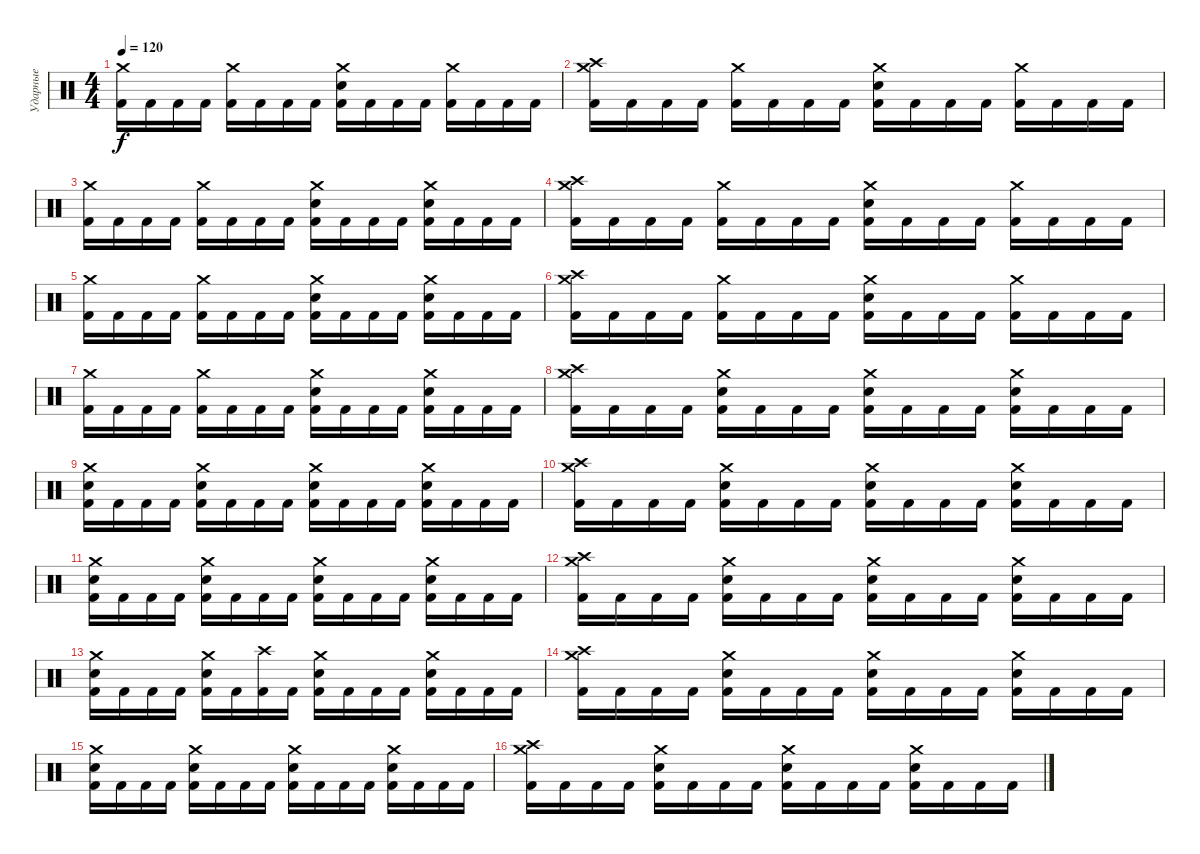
\track ("Ударные" "Ударные") {instrument percussion}
\staff {score}
\articulation defaults
\ts (4 4)
\tempo 120
\clef neutral
\ks c
("Crash medium (hit)" "Kick (hit) 2").16{dy f} "Kick (hit) 2".16 "Kick (hit) 2".16 "Kick (hit) 2".16 ("Crash medium (hit)" "Kick (hit) 2").16 "Kick (hit) 2".16 "Kick (hit) 2".16 "Kick (hit) 2".16 ("Crash medium (hit)" "Electric Snare (hit)" "Kick (hit) 2").16 "Kick (hit) 2".16 "Kick (hit) 2".16 "Kick (hit) 2".16 ("Crash medium (hit)" "Kick (hit) 2").16 "Kick (hit) 2".16 "Kick (hit) 2".16 "Kick (hit) 2".16 |
("Crash medium (hit)" "Crash high (hit)" "Kick (hit) 2").16 "Kick (hit) 2".16 "Kick (hit) 2".16 "Kick (hit) 2".16 ("Crash medium (hit)" "Kick (hit) 2").16 "Kick (hit) 2".16 "Kick (hit) 2".16 "Kick (hit) 2".16 ("Crash medium (hit)" "Electric Snare (hit)" "Kick (hit) 2").16 "Kick (hit) 2".16 "Kick (hit) 2".16 "Kick (hit) 2".16 ("Crash medium (hit)" "Kick (hit) 2").16 "Kick (hit) 2".16 "Kick (hit) 2".16 "Kick (hit) 2".16 |
("Crash medium (hit)" "Kick (hit) 2").16 "Kick (hit) 2".16 "Kick (hit) 2".16 "Kick (hit) 2".16 ("Crash medium (hit)" "Kick (hit) 2").16 "Kick (hit) 2".16 "Kick (hit) 2".16 "Kick (hit) 2".16 ("Crash medium (hit)" "Electric Snare (hit)" "Kick (hit) 2").16 "Kick (hit) 2".16 "Kick (hit) 2".16 "Kick (hit) 2".16 ("Crash medium (hit)" "Electric Snare (hit)" "Kick (hit) 2").16 "Kick (hit) 2".16 "Kick (hit) 2".16 "Kick (hit) 2".16 |
("Crash medium (hit)" "Crash high (hit)" "Kick (hit) 2").16 "Kick (hit) 2".16 "Kick (hit) 2".16 "Kick (hit) 2".16 ("Crash medium (hit)" "Kick (hit) 2").16 "Kick (hit) 2".16 "Kick (hit) 2".16 "Kick (hit) 2".16 ("Crash medium (hit)" "Electric Snare (hit)" "Kick (hit) 2").16 "Kick (hit) 2".16 "Kick (hit) 2".16 "Kick (hit) 2".16 ("Crash medium (hit)" "Kick (hit) 2").16 "Kick (hit) 2".16 "Kick (hit) 2".16 "Kick (hit) 2".16 |
("Crash medium (hit)" "Kick (hit) 2").16 "Kick (hit) 2".16 "Kick (hit) 2".16 "Kick (hit) 2".16 ("Crash medium (hit)" "Kick (hit) 2").16 "Kick (hit) 2".16 "Kick (hit) 2".16 "Kick (hit) 2".16 ("Crash medium (hit)" "Electric Snare (hit)" "Kick (hit) 2").16 "Kick (hit) 2".16 "Kick (hit) 2".16 "Kick (hit) 2".16 ("Crash medium (hit)" "Electric Snare (hit)" "Kick (hit) 2").16 "Kick (hit) 2".16 "Kick (hit) 2".16 "Kick (hit) 2".16 |
("Crash medium (hit)" "Crash high (hit)" "Kick (hit) 2").16 "Kick (hit) 2".16 "Kick (hit) 2".16 "Kick (hit) 2".16 ("Crash medium (hit)" "Kick (hit) 2").16 "Kick (hit) 2".16 "Kick (hit) 2".16 "Kick (hit) 2".16 ("Crash medium (hit)" "Electric Snare (hit)" "Kick (hit) 2").16 "Kick (hit) 2".16 "Kick (hit) 2".16 "Kick (hit) 2".16 ("Crash medium (hit)" "Kick (hit) 2").16 "Kick (hit) 2".16 "Kick (hit) 2".16 "Kick (hit) 2".16 |
("Crash medium (hit)" "Kick (hit) 2").16 "Kick (hit) 2".16 "Kick (hit) 2".16 "Kick (hit) 2".16 ("Crash medium (hit)" "Kick (hit) 2").16 "Kick (hit) 2".16 "Kick (hit) 2".16 "Kick (hit) 2".16 ("Crash medium (hit)" "Electric Snare (hit)" "Kick (hit) 2").16 "Kick (hit) 2".16 "Kick (hit) 2".16 "Kick (hit) 2".16 ("Crash medium (hit)" "Electric Snare (hit)" "Kick (hit) 2").16 "Kick (hit) 2".16 "Kick (hit) 2".16 "Kick (hit) 2".16 |
("Crash medium (hit)" "Crash high (hit)" "Kick (hit) 2").16 "Kick (hit) 2".16 "Kick (hit) 2".16 "Kick (hit) 2".16 ("Crash medium (hit)" "Electric Snare (hit)" "Kick (hit) 2").16 "Kick (hit) 2".16 "Kick (hit) 2".16 "Kick (hit) 2".16 ("Crash medium (hit)" "Electric Snare (hit)" "Kick (hit) 2").16 "Kick (hit) 2".16 "Kick (hit) 2".16 "Kick (hit) 2".16 ("Crash medium (hit)" "Electric Snare (hit)" "Kick (hit) 2").16 "Kick (hit) 2".16 "Kick (hit) 2".16 "Kick (hit) 2".16 |
("Crash medium (hit)" "Electric Snare (hit)" "Kick (hit) 2").16 "Kick (hit) 2".16 "Kick (hit) 2".16 "Kick (hit) 2".16 ("Crash medium (hit)" "Electric Snare (hit)" "Kick (hit) 2").16 "Kick (hit) 2".16 "Kick (hit) 2".16 "Kick (hit) 2".16 ("Crash medium (hit)" "Electric Snare (hit)" "Kick (hit) 2").16 "Kick (hit) 2".16 "Kick (hit) 2".16 "Kick (hit) 2".16 ("Crash medium (hit)" "Electric Snare (hit)" "Kick (hit) 2").16 "Kick (hit) 2".16 "Kick (hit) 2".16 "Kick (hit) 2".16 |
("Crash medium (hit)" "Crash high (hit)" "Kick (hit) 2").16 "Kick (hit) 2".16 "Kick (hit) 2".16 "Kick (hit) 2".16 ("Crash medium (hit)" "Electric Snare (hit)" "Kick (hit) 2").16 "Kick (hit) 2".16 "Kick (hit) 2".16 "Kick (hit) 2".16 ("Crash medium (hit)" "Electric Snare (hit)" "Kick (hit) 2").16 "Kick (hit) 2".16 "Kick (hit) 2".16 "Kick (hit) 2".16 ("Crash medium (hit)" "Electric Snare (hit)" "Kick (hit) 2").16 "Kick (hit) 2".16 "Kick (hit) 2".16 "Kick (hit) 2".16 |
("Crash medium (hit)" "Electric Snare (hit)" "Kick (hit) 2").16 "Kick (hit) 2".16 "Kick (hit) 2".16 "Kick (hit) 2".16 ("Crash medium (hit)" "Electric Snare (hit)" "Kick (hit) 2").16 "Kick (hit) 2".16 "Kick (hit) 2".16 "Kick (hit) 2".16 ("Crash medium (hit)" "Electric Snare (hit)" "Kick (hit) 2").16 "Kick (hit) 2".16 "Kick (hit) 2".16 "Kick (hit) 2".16 ("Crash medium (hit)" "Electric Snare (hit)" "Kick (hit) 2").16 "Kick (hit) 2".16 "Kick (hit) 2".16 "Kick (hit) 2".16 |
("Crash medium (hit)" "Crash high (hit)" "Kick (hit) 2").16 "Kick (hit) 2".16 "Kick (hit) 2".16 "Kick (hit) 2".16 ("Crash medium (hit)" "Electric Snare (hit)" "Kick (hit) 2").16 "Kick (hit) 2".16 "Kick (hit) 2".16 "Kick (hit) 2".16 ("Crash medium (hit)" "Electric Snare (hit)" "Kick (hit) 2").16 "Kick (hit) 2".16 "Kick (hit) 2".16 "Kick (hit) 2".16 ("Crash medium (hit)" "Electric Snare (hit)" "Kick (hit) 2").16 "Kick (hit) 2".16 "Kick (hit) 2".16 "Kick (hit) 2".16 |
("Crash medium (hit)" "Electric Snare (hit)" "Kick (hit) 2").16 "Kick (hit) 2".16 "Kick (hit) 2".16 "Kick (hit) 2".16 ("Crash medium (hit)" "Electric Snare (hit)" "Kick (hit) 2").16 "Kick (hit) 2".16 ("Crash high (hit)" "Kick (hit) 2").16 "Kick (hit) 2".16 ("Crash medium (hit)" "Electric Snare (hit)" "Kick (hit) 2").16 "Kick (hit) 2".16 "Kick (hit) 2".16 "Kick (hit) 2".16 ("Crash medium (hit)" "Electric Snare (hit)" "Kick (hit) 2").16 "Kick (hit) 2".16 "Kick (hit) 2".16 "Kick (hit) 2".16 |
("Crash medium (hit)" "Crash high (hit)" "Kick (hit) 2").16 "Kick (hit) 2".16 "Kick (hit) 2".16 "Kick (hit) 2".16 ("Crash medium (hit)" "Electric Snare (hit)" "Kick (hit) 2").16 "Kick (hit) 2".16 "Kick (hit) 2".16 "Kick (hit) 2".16 ("Crash medium (hit)" "Electric Snare (hit)" "Kick (hit) 2").16 "Kick (hit) 2".16 "Kick (hit) 2".16 "Kick (hit) 2".16 ("Crash medium (hit)" "Electric Snare (hit)" "Kick (hit) 2").16 "Kick (hit) 2".16 "Kick (hit) 2".16 "Kick (hit) 2".16 |
("Crash medium (hit)" "Electric Snare (hit)" "Kick (hit) 2").16 "Kick (hit) 2".16 "Kick (hit) 2".16 "Kick (hit) 2".16 ("Crash medium (hit)" "Electric Snare (hit)" "Kick (hit) 2").16 "Kick (hit) 2".16 "Kick (hit) 2".16 "Kick (hit) 2".16 ("Crash medium (hit)" "Electric Snare (hit)" "Kick (hit) 2").16 "Kick (hit) 2".16 "Kick (hit) 2".16 "Kick (hit) 2".16 ("Crash medium (hit)" "Electric Snare (hit)" "Kick (hit) 2").16 "Kick (hit) 2".16 "Kick (hit) 2".16 "Kick (hit) 2".16 |
("Crash medium (hit)" "Crash high (hit)" "Kick (hit) 2").16 "Kick (hit) 2".16 "Kick (hit) 2".16 "Kick (hit) 2".16 ("Crash medium (hit)" "Electric Snare (hit)" "Kick (hit) 2").16 "Kick (hit) 2".16 "Kick (hit) 2".16 "Kick (hit) 2".16 ("Crash medium (hit)" "Electric Snare (hit)" "Kick (hit) 2").16 "Kick (hit) 2".16 "Kick (hit) 2".16 "Kick (hit) 2".16 ("Crash medium (hit)" "Electric Snare (hit)" "Kick (hit) 2").16 "Kick (hit) 2".16 "Kick (hit) 2".16 "Kick (hit) 2".16
